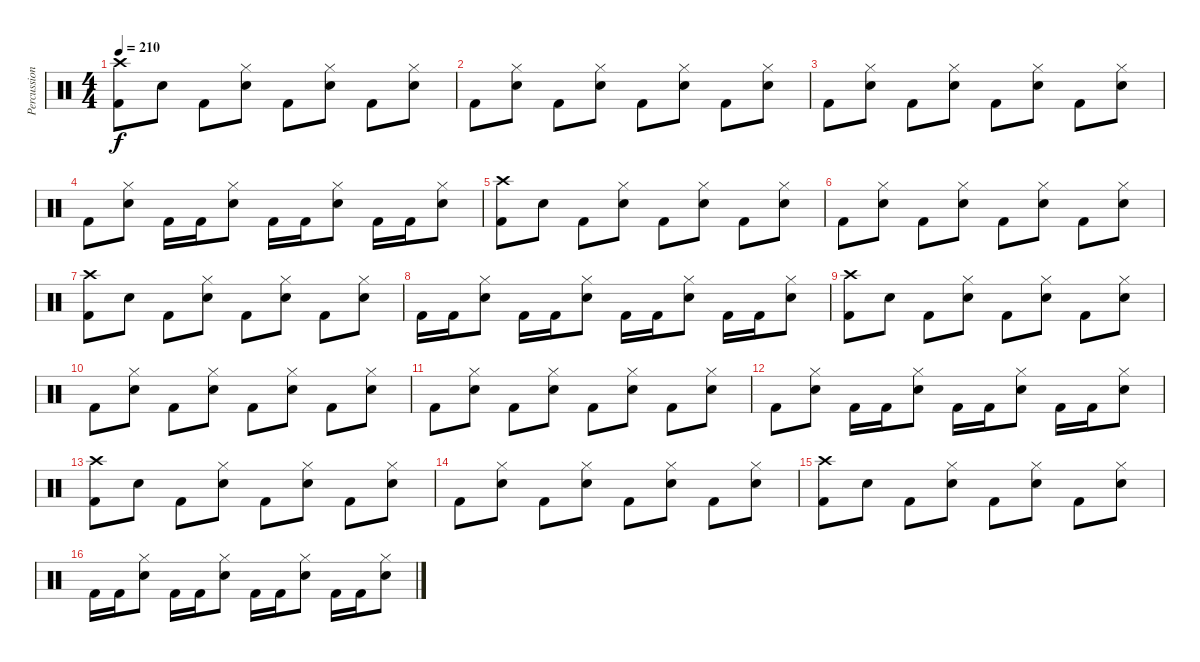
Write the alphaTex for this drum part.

\track ("Percussions" "Percussion") {instrument percussion}
\staff {score}
\articulation defaults
\ts (4 4)
\tempo 210
\clef neutral
\ks c
("Crash high (hit)" "Kick (hit) 2").8{dy f} "Electric Snare (hit)".8 "Kick (hit) 2".8 ("Hi-Hat (closed)" "Electric Snare (hit)").8 "Kick (hit) 2".8 ("Hi-Hat (closed)" "Electric Snare (hit)").8 "Kick (hit) 2".8 ("Hi-Hat (closed)" "Electric Snare (hit)").8 |
"Kick (hit) 2".8 ("Hi-Hat (closed)" "Electric Snare (hit)").8 "Kick (hit) 2".8 ("Hi-Hat (closed)" "Electric Snare (hit)").8 "Kick (hit) 2".8 ("Hi-Hat (closed)" "Electric Snare (hit)").8 "Kick (hit) 2".8 ("Hi-Hat (closed)" "Electric Snare (hit)").8 |
"Kick (hit) 2".8 ("Hi-Hat (closed)" "Electric Snare (hit)").8 "Kick (hit) 2".8 ("Hi-Hat (closed)" "Electric Snare (hit)").8 "Kick (hit) 2".8 ("Hi-Hat (closed)" "Electric Snare (hit)").8 "Kick (hit) 2".8 ("Hi-Hat (closed)" "Electric Snare (hit)").8 |
"Kick (hit) 2".8 ("Hi-Hat (closed)" "Electric Snare (hit)").8 "Kick (hit) 2".16 "Kick (hit) 2".16 ("Hi-Hat (closed)" "Electric Snare (hit)").8 "Kick (hit) 2".16 "Kick (hit) 2".16 ("Hi-Hat (closed)" "Electric Snare (hit)").8 "Kick (hit) 2".16 "Kick (hit) 2".16 ("Hi-Hat (closed)" "Electric Snare (hit)").8 |
("Crash high (hit)" "Kick (hit) 2").8 "Electric Snare (hit)".8 "Kick (hit) 2".8 ("Hi-Hat (closed)" "Electric Snare (hit)").8 "Kick (hit) 2".8 ("Hi-Hat (closed)" "Electric Snare (hit)").8 "Kick (hit) 2".8 ("Hi-Hat (closed)" "Electric Snare (hit)").8 |
"Kick (hit) 2".8 ("Hi-Hat (closed)" "Electric Snare (hit)").8 "Kick (hit) 2".8 ("Hi-Hat (closed)" "Electric Snare (hit)").8 "Kick (hit) 2".8 ("Hi-Hat (closed)" "Electric Snare (hit)").8 "Kick (hit) 2".8 ("Hi-Hat (closed)" "Electric Snare (hit)").8 |
("Crash high (hit)" "Kick (hit) 2").8 "Electric Snare (hit)".8 "Kick (hit) 2".8 ("Hi-Hat (closed)" "Electric Snare (hit)").8 "Kick (hit) 2".8 ("Hi-Hat (closed)" "Electric Snare (hit)").8 "Kick (hit) 2".8 ("Hi-Hat (closed)" "Electric Snare (hit)").8 |
"Kick (hit) 2".16 "Kick (hit) 2".16 ("Hi-Hat (closed)" "Electric Snare (hit)").8 "Kick (hit) 2".16 "Kick (hit) 2".16 ("Hi-Hat (closed)" "Electric Snare (hit)").8 "Kick (hit) 2".16 "Kick (hit) 2".16 ("Hi-Hat (closed)" "Electric Snare (hit)").8 "Kick (hit) 2".16 "Kick (hit) 2".16 ("Hi-Hat (closed)" "Electric Snare (hit)").8 |
("Crash high (hit)" "Kick (hit) 2").8 "Electric Snare (hit)".8 "Kick (hit) 2".8 ("Hi-Hat (closed)" "Electric Snare (hit)").8 "Kick (hit) 2".8 ("Hi-Hat (closed)" "Electric Snare (hit)").8 "Kick (hit) 2".8 ("Hi-Hat (closed)" "Electric Snare (hit)").8 |
"Kick (hit) 2".8 ("Hi-Hat (closed)" "Electric Snare (hit)").8 "Kick (hit) 2".8 ("Hi-Hat (closed)" "Electric Snare (hit)").8 "Kick (hit) 2".8 ("Hi-Hat (closed)" "Electric Snare (hit)").8 "Kick (hit) 2".8 ("Hi-Hat (closed)" "Electric Snare (hit)").8 |
"Kick (hit) 2".8 ("Hi-Hat (closed)" "Electric Snare (hit)").8 "Kick (hit) 2".8 ("Hi-Hat (closed)" "Electric Snare (hit)").8 "Kick (hit) 2".8 ("Hi-Hat (closed)" "Electric Snare (hit)").8 "Kick (hit) 2".8 ("Hi-Hat (closed)" "Electric Snare (hit)").8 |
"Kick (hit) 2".8 ("Hi-Hat (closed)" "Electric Snare (hit)").8 "Kick (hit) 2".16 "Kick (hit) 2".16 ("Hi-Hat (closed)" "Electric Snare (hit)").8 "Kick (hit) 2".16 "Kick (hit) 2".16 ("Hi-Hat (closed)" "Electric Snare (hit)").8 "Kick (hit) 2".16 "Kick (hit) 2".16 ("Hi-Hat (closed)" "Electric Snare (hit)").8 |
("Crash high (hit)" "Kick (hit) 2").8 "Electric Snare (hit)".8 "Kick (hit) 2".8 ("Hi-Hat (closed)" "Electric Snare (hit)").8 "Kick (hit) 2".8 ("Hi-Hat (closed)" "Electric Snare (hit)").8 "Kick (hit) 2".8 ("Hi-Hat (closed)" "Electric Snare (hit)").8 |
"Kick (hit) 2".8 ("Hi-Hat (closed)" "Electric Snare (hit)").8 "Kick (hit) 2".8 ("Hi-Hat (closed)" "Electric Snare (hit)").8 "Kick (hit) 2".8 ("Hi-Hat (closed)" "Electric Snare (hit)").8 "Kick (hit) 2".8 ("Hi-Hat (closed)" "Electric Snare (hit)").8 |
("Crash high (hit)" "Kick (hit) 2").8 "Electric Snare (hit)".8 "Kick (hit) 2".8 ("Hi-Hat (closed)" "Electric Snare (hit)").8 "Kick (hit) 2".8 ("Hi-Hat (closed)" "Electric Snare (hit)").8 "Kick (hit) 2".8 ("Hi-Hat (closed)" "Electric Snare (hit)").8 |
"Kick (hit) 2".16 "Kick (hit) 2".16 ("Hi-Hat (closed)" "Electric Snare (hit)").8 "Kick (hit) 2".16 "Kick (hit) 2".16 ("Hi-Hat (closed)" "Electric Snare (hit)").8 "Kick (hit) 2".16 "Kick (hit) 2".16 ("Hi-Hat (closed)" "Electric Snare (hit)").8 "Kick (hit) 2".16 "Kick (hit) 2".16 ("Hi-Hat (closed)" "Electric Snare (hit)").8
